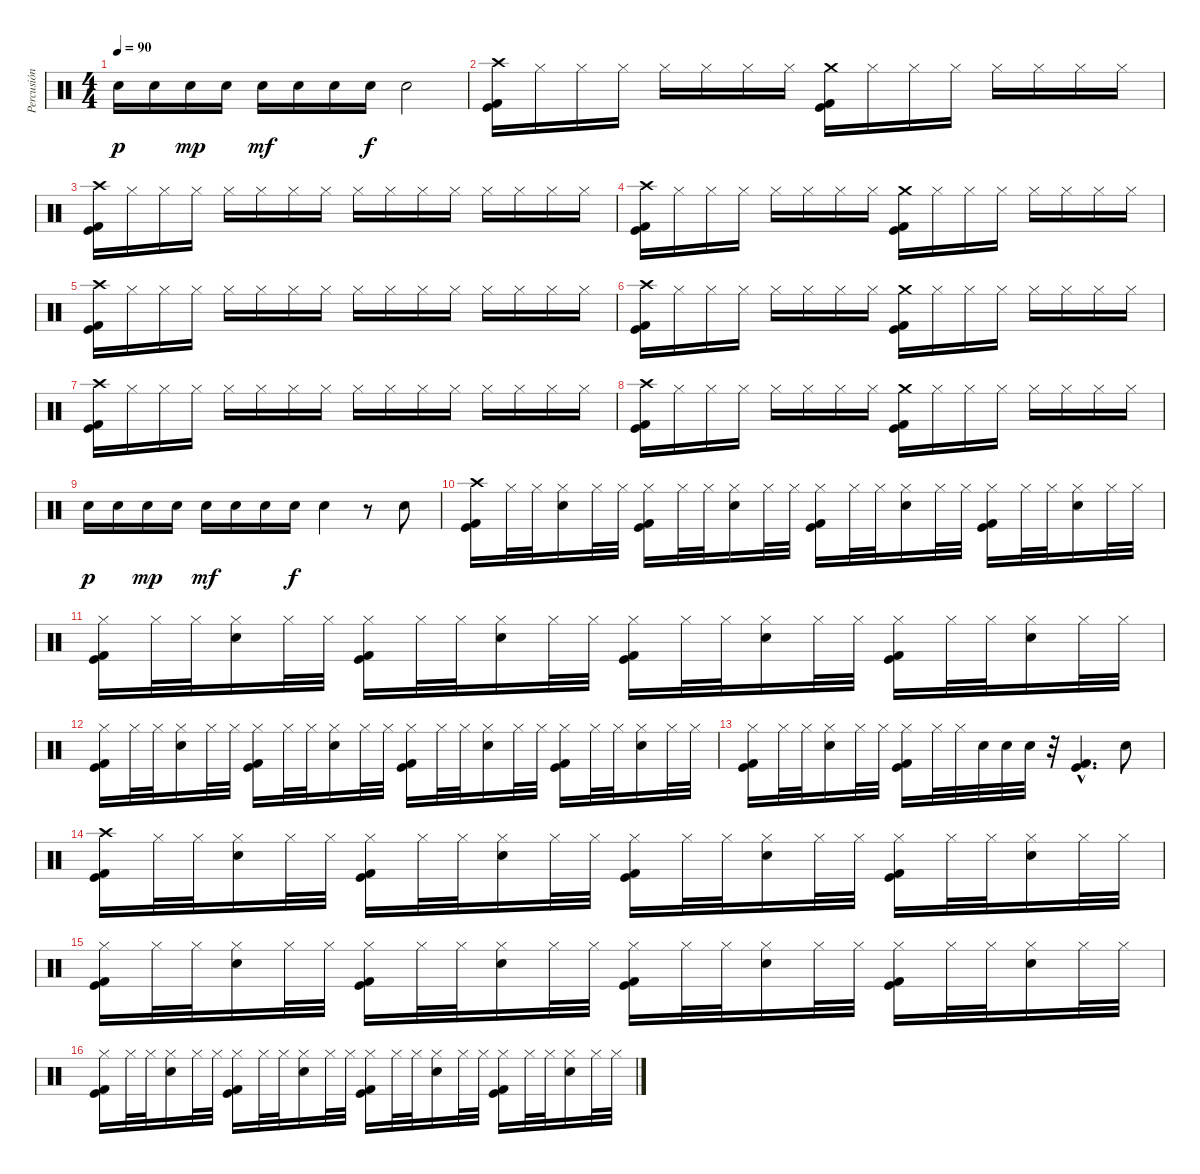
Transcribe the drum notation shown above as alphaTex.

\track ("Percusión" "Percusión") {instrument percussion}
\staff {score}
\articulation defaults
\ts (4 4)
\tempo 90
\clef neutral
\ks c "Snare (hit) 2".16{dy p} "Snare (hit) 2".16 "Snare (hit) 2".16{dy mp} "Snare (hit) 2".16 "Snare (hit) 2".16{dy mf} "Snare (hit) 2".16 "Snare (hit) 2".16 "Snare (hit) 2".16{dy f} "Snare (hit) 2".2
|
("Kick (hit) 2" "Crash high (hit)" "Kick (hit)").16 "Hi-Hat (closed)".16 "Hi-Hat (closed)".16 "Hi-Hat (closed)".16 "Hi-Hat (closed)".16 "Hi-Hat (closed)".16 "Hi-Hat (closed)".16 "Hi-Hat (closed)".16 ("Kick (hit) 2" "Crash medium (hit)" "Kick (hit)").16 "Hi-Hat (closed)".16 "Hi-Hat (closed)".16 "Hi-Hat (closed)".16 "Hi-Hat (closed)".16 "Hi-Hat (closed)".16 "Hi-Hat (closed)".16 "Hi-Hat (closed)".16 |
("Kick (hit) 2" "Crash high (hit)" "Kick (hit)").16 "Hi-Hat (closed)".16 "Hi-Hat (closed)".16 "Hi-Hat (closed)".16 "Hi-Hat (closed)".16 "Hi-Hat (closed)".16 "Hi-Hat (closed)".16 "Hi-Hat (closed)".16 "Hi-Hat (closed)".16 "Hi-Hat (closed)".16 "Hi-Hat (closed)".16 "Hi-Hat (closed)".16 "Hi-Hat (closed)".16 "Hi-Hat (closed)".16 "Hi-Hat (closed)".16 "Hi-Hat (closed)".16 |
("Kick (hit) 2" "Crash high (hit)" "Kick (hit)").16 "Hi-Hat (closed)".16 "Hi-Hat (closed)".16 "Hi-Hat (closed)".16 "Hi-Hat (closed)".16 "Hi-Hat (closed)".16 "Hi-Hat (closed)".16 "Hi-Hat (closed)".16 ("Kick (hit) 2" "Crash medium (hit)" "Kick (hit)").16 "Hi-Hat (closed)".16 "Hi-Hat (closed)".16 "Hi-Hat (closed)".16 "Hi-Hat (closed)".16 "Hi-Hat (closed)".16 "Hi-Hat (closed)".16 "Hi-Hat (closed)".16 |
("Kick (hit) 2" "Crash high (hit)" "Kick (hit)").16 "Hi-Hat (closed)".16 "Hi-Hat (closed)".16 "Hi-Hat (closed)".16 "Hi-Hat (closed)".16 "Hi-Hat (closed)".16 "Hi-Hat (closed)".16 "Hi-Hat (closed)".16 "Hi-Hat (closed)".16 "Hi-Hat (closed)".16 "Hi-Hat (closed)".16 "Hi-Hat (closed)".16 "Hi-Hat (closed)".16 "Hi-Hat (closed)".16 "Hi-Hat (closed)".16 "Hi-Hat (closed)".16 |
("Kick (hit) 2" "Crash high (hit)" "Kick (hit)").16 "Hi-Hat (closed)".16 "Hi-Hat (closed)".16 "Hi-Hat (closed)".16 "Hi-Hat (closed)".16 "Hi-Hat (closed)".16 "Hi-Hat (closed)".16 "Hi-Hat (closed)".16 ("Kick (hit) 2" "Crash medium (hit)" "Kick (hit)").16 "Hi-Hat (closed)".16 "Hi-Hat (closed)".16 "Hi-Hat (closed)".16 "Hi-Hat (closed)".16 "Hi-Hat (closed)".16 "Hi-Hat (closed)".16 "Hi-Hat (closed)".16 |
("Kick (hit) 2" "Crash high (hit)" "Kick (hit)").16 "Hi-Hat (closed)".16 "Hi-Hat (closed)".16 "Hi-Hat (closed)".16 "Hi-Hat (closed)".16 "Hi-Hat (closed)".16 "Hi-Hat (closed)".16 "Hi-Hat (closed)".16 "Hi-Hat (closed)".16 "Hi-Hat (closed)".16 "Hi-Hat (closed)".16 "Hi-Hat (closed)".16 "Hi-Hat (closed)".16 "Hi-Hat (closed)".16 "Hi-Hat (closed)".16 "Hi-Hat (closed)".16 |
("Kick (hit) 2" "Crash high (hit)" "Kick (hit)").16 "Hi-Hat (closed)".16 "Hi-Hat (closed)".16 "Hi-Hat (closed)".16 "Hi-Hat (closed)".16 "Hi-Hat (closed)".16 "Hi-Hat (closed)".16 "Hi-Hat (closed)".16 ("Kick (hit) 2" "Crash medium (hit)" "Kick (hit)").16 "Hi-Hat (closed)".16 "Hi-Hat (closed)".16 "Hi-Hat (closed)".16 "Hi-Hat (closed)".16 "Hi-Hat (closed)".16 "Hi-Hat (closed)".16 "Hi-Hat (closed)".16 |
"Snare (hit) 2".16{dy p} "Snare (hit) 2".16 "Snare (hit) 2".16{dy mp} "Snare (hit) 2".16 "Snare (hit) 2".16{dy mf} "Snare (hit) 2".16 "Snare (hit) 2".16 "Snare (hit) 2".16{dy f} "Snare (hit) 2".4 r.8 "Snare (hit) 2".8 |
("Kick (hit) 2" "Crash high (hit)" "Kick (hit)").16 "Hi-Hat (closed)".32 "Hi-Hat (closed)".32 ("Snare (hit) 2" "Hi-Hat (closed)").16 "Hi-Hat (closed)".32 "Hi-Hat (closed)".32 ("Kick (hit) 2" "Hi-Hat (closed)" "Kick (hit)").16 "Hi-Hat (closed)".32 "Hi-Hat (closed)".32 ("Snare (hit) 2" "Hi-Hat (closed)").16 "Hi-Hat (closed)".32 "Hi-Hat (closed)".32 ("Kick (hit) 2" "Hi-Hat (closed)" "Kick (hit)").16 "Hi-Hat (closed)".32 "Hi-Hat (closed)".32 ("Snare (hit) 2" "Hi-Hat (closed)").16 "Hi-Hat (closed)".32 "Hi-Hat (closed)".32 ("Kick (hit) 2" "Hi-Hat (closed)" "Kick (hit)").16 "Hi-Hat (closed)".32 "Hi-Hat (closed)".32 ("Snare (hit) 2" "Hi-Hat (closed)").16 "Hi-Hat (closed)".32 "Hi-Hat (closed)".32 |
("Kick (hit) 2" "Hi-Hat (closed)" "Kick (hit)").16 "Hi-Hat (closed)".32 "Hi-Hat (closed)".32 ("Snare (hit) 2" "Hi-Hat (closed)").16 "Hi-Hat (closed)".32 "Hi-Hat (closed)".32 ("Kick (hit) 2" "Hi-Hat (closed)" "Kick (hit)").16 "Hi-Hat (closed)".32 "Hi-Hat (closed)".32 ("Snare (hit) 2" "Hi-Hat (closed)").16 "Hi-Hat (closed)".32 "Hi-Hat (closed)".32 ("Kick (hit) 2" "Hi-Hat (closed)" "Kick (hit)").16 "Hi-Hat (closed)".32 "Hi-Hat (closed)".32 ("Snare (hit) 2" "Hi-Hat (closed)").16 "Hi-Hat (closed)".32 "Hi-Hat (closed)".32 ("Kick (hit) 2" "Hi-Hat (closed)" "Kick (hit)").16 "Hi-Hat (closed)".32 "Hi-Hat (closed)".32 ("Snare (hit) 2" "Hi-Hat (closed)").16 "Hi-Hat (closed)".32 "Hi-Hat (closed)".32 |
("Kick (hit) 2" "Hi-Hat (closed)" "Kick (hit)").16 "Hi-Hat (closed)".32 "Hi-Hat (closed)".32 ("Snare (hit) 2" "Hi-Hat (closed)").16 "Hi-Hat (closed)".32 "Hi-Hat (closed)".32 ("Kick (hit) 2" "Hi-Hat (closed)" "Kick (hit)").16 "Hi-Hat (closed)".32 "Hi-Hat (closed)".32 ("Snare (hit) 2" "Hi-Hat (closed)").16 "Hi-Hat (closed)".32 "Hi-Hat (closed)".32 ("Kick (hit) 2" "Hi-Hat (closed)" "Kick (hit)").16 "Hi-Hat (closed)".32 "Hi-Hat (closed)".32 ("Snare (hit) 2" "Hi-Hat (closed)").16 "Hi-Hat (closed)".32 "Hi-Hat (closed)".32 ("Kick (hit) 2" "Hi-Hat (closed)" "Kick (hit)").16 "Hi-Hat (closed)".32 "Hi-Hat (closed)".32 ("Snare (hit) 2" "Hi-Hat (closed)").16 "Hi-Hat (closed)".32 "Hi-Hat (closed)".32 |
("Kick (hit) 2" "Hi-Hat (closed)" "Kick (hit)").16 "Hi-Hat (closed)".32 "Hi-Hat (closed)".32 ("Snare (hit) 2" "Hi-Hat (closed)").16 "Hi-Hat (closed)".32 "Hi-Hat (closed)".32 ("Kick (hit) 2" "Hi-Hat (closed)" "Kick (hit)").16 "Hi-Hat (closed)".32 "Hi-Hat (closed)".32 "Snare (hit) 2".32 "Snare (hit) 2".32 "Snare (hit) 2".32 r.32 ("Kick (hit) 2"{hac} "Kick (hit)"{hac}).4{d} "Snare (hit) 2".8 |
("Kick (hit) 2" "Crash high (hit)" "Kick (hit)").16 "Hi-Hat (closed)".32 "Hi-Hat (closed)".32 ("Snare (hit) 2" "Hi-Hat (closed)").16 "Hi-Hat (closed)".32 "Hi-Hat (closed)".32 ("Kick (hit) 2" "Hi-Hat (closed)" "Kick (hit)").16 "Hi-Hat (closed)".32 "Hi-Hat (closed)".32 ("Snare (hit) 2" "Hi-Hat (closed)").16 "Hi-Hat (closed)".32 "Hi-Hat (closed)".32 ("Kick (hit) 2" "Hi-Hat (closed)" "Kick (hit)").16 "Hi-Hat (closed)".32 "Hi-Hat (closed)".32 ("Snare (hit) 2" "Hi-Hat (closed)").16 "Hi-Hat (closed)".32 "Hi-Hat (closed)".32 ("Kick (hit) 2" "Hi-Hat (closed)" "Kick (hit)").16 "Hi-Hat (closed)".32 "Hi-Hat (closed)".32 ("Snare (hit) 2" "Hi-Hat (closed)").16 "Hi-Hat (closed)".32 "Hi-Hat (closed)".32 |
("Kick (hit) 2" "Hi-Hat (closed)" "Kick (hit)").16 "Hi-Hat (closed)".32 "Hi-Hat (closed)".32 ("Snare (hit) 2" "Hi-Hat (closed)").16 "Hi-Hat (closed)".32 "Hi-Hat (closed)".32 ("Kick (hit) 2" "Hi-Hat (closed)" "Kick (hit)").16 "Hi-Hat (closed)".32 "Hi-Hat (closed)".32 ("Snare (hit) 2" "Hi-Hat (closed)").16 "Hi-Hat (closed)".32 "Hi-Hat (closed)".32 ("Kick (hit) 2" "Hi-Hat (closed)" "Kick (hit)").16 "Hi-Hat (closed)".32 "Hi-Hat (closed)".32 ("Snare (hit) 2" "Hi-Hat (closed)").16 "Hi-Hat (closed)".32 "Hi-Hat (closed)".32 ("Kick (hit) 2" "Hi-Hat (closed)" "Kick (hit)").16 "Hi-Hat (closed)".32 "Hi-Hat (closed)".32 ("Snare (hit) 2" "Hi-Hat (closed)").16 "Hi-Hat (closed)".32 "Hi-Hat (closed)".32 |
("Kick (hit) 2" "Hi-Hat (closed)" "Kick (hit)").16 "Hi-Hat (closed)".32 "Hi-Hat (closed)".32 ("Snare (hit) 2" "Hi-Hat (closed)").16 "Hi-Hat (closed)".32 "Hi-Hat (closed)".32 ("Kick (hit) 2" "Hi-Hat (closed)" "Kick (hit)").16 "Hi-Hat (closed)".32 "Hi-Hat (closed)".32 ("Snare (hit) 2" "Hi-Hat (closed)").16 "Hi-Hat (closed)".32 "Hi-Hat (closed)".32 ("Kick (hit) 2" "Hi-Hat (closed)" "Kick (hit)").16 "Hi-Hat (closed)".32 "Hi-Hat (closed)".32 ("Snare (hit) 2" "Hi-Hat (closed)").16 "Hi-Hat (closed)".32 "Hi-Hat (closed)".32 ("Kick (hit) 2" "Hi-Hat (closed)" "Kick (hit)").16 "Hi-Hat (closed)".32 "Hi-Hat (closed)".32 ("Snare (hit) 2" "Hi-Hat (closed)").16 "Hi-Hat (closed)".32 "Hi-Hat (closed)".32
